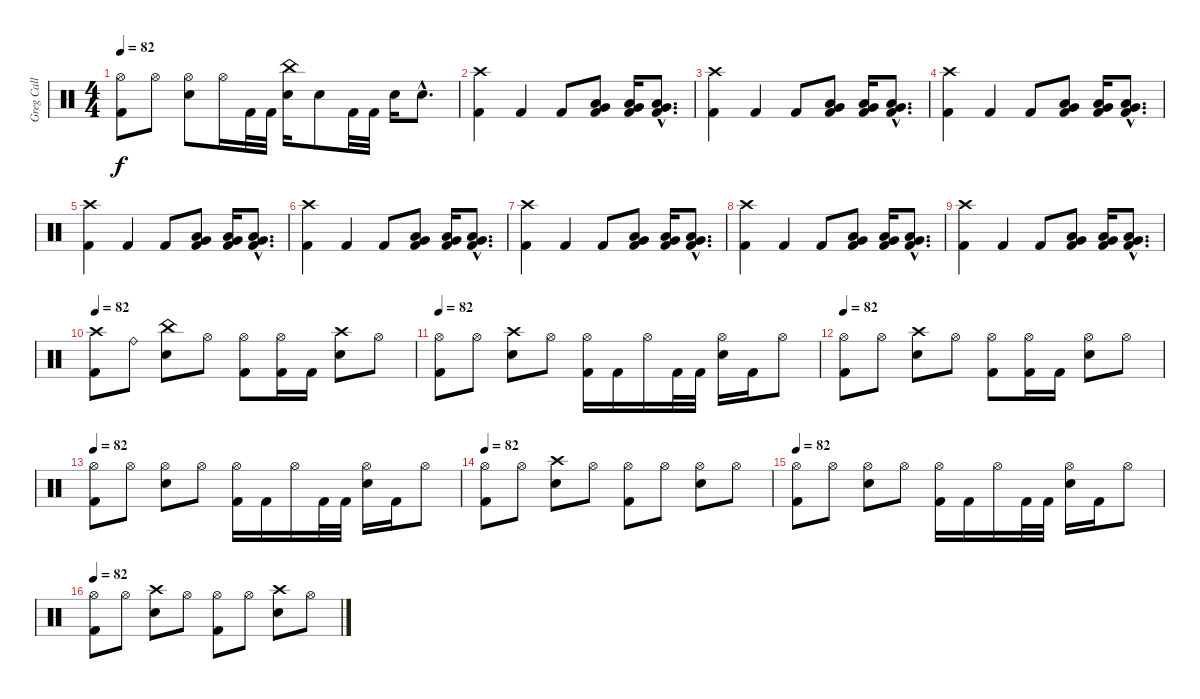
\track ("Greg Call (Drums)" "Greg Call ") {instrument percussion}
\staff {score}
\articulation defaults
\ts (4 4)
\tempo 82
\clef neutral
\ks c
("Hi-Hat (open)" "Kick (hit) 2").8{dy f} "Hi-Hat (open)".8 ("Hi-Hat (open)" "Snare (hit) 2").8 "Hi-Hat (open)".16 "Kick (hit) 2".32 "Kick (hit) 2".32 ("China (hit)" "Snare (hit) 2").16 "Snare (hit) 2".8 "Kick (hit) 2".32 "Kick (hit) 2".32 "Snare (hit) 2".16 "Snare (hit) 2"{hac}.8{d} |
("Kick (hit) 2" "Crash high (hit)").4 "Kick (hit) 2".4 "Kick (hit) 2".8 ("Low Floor Tom (hit)" "Very Low Tom (hit)" "Kick (hit) 2").8 ("Very Low Tom (hit)" "Low Floor Tom (hit)" "Kick (hit) 2").16 ("Low Floor Tom (hit)"{hac} "Very Low Tom (hit)"{hac} "Kick (hit) 2"{hac}).8{d} |
("Kick (hit) 2" "Crash high (hit)").4 "Kick (hit) 2".4 "Kick (hit) 2".8 ("Low Floor Tom (hit)" "Very Low Tom (hit)" "Kick (hit) 2").8 ("Very Low Tom (hit)" "Low Floor Tom (hit)" "Kick (hit) 2").16 ("Low Floor Tom (hit)"{hac} "Very Low Tom (hit)"{hac} "Kick (hit) 2"{hac}).8{d} |
("Kick (hit) 2" "Crash high (hit)").4 "Kick (hit) 2".4 "Kick (hit) 2".8 ("Low Floor Tom (hit)" "Very Low Tom (hit)" "Kick (hit) 2").8 ("Very Low Tom (hit)" "Low Floor Tom (hit)" "Kick (hit) 2").16 ("Low Floor Tom (hit)"{hac} "Very Low Tom (hit)"{hac} "Kick (hit) 2"{hac}).8{d} |
("Kick (hit) 2" "Crash high (hit)").4 "Kick (hit) 2".4 "Kick (hit) 2".8 ("Low Floor Tom (hit)" "Very Low Tom (hit)" "Kick (hit) 2").8 ("Very Low Tom (hit)" "Low Floor Tom (hit)" "Kick (hit) 2").16 ("Low Floor Tom (hit)"{hac} "Very Low Tom (hit)"{hac} "Kick (hit) 2"{hac}).8{d} |
("Kick (hit) 2" "Crash high (hit)").4 "Kick (hit) 2".4 "Kick (hit) 2".8 ("Low Floor Tom (hit)" "Very Low Tom (hit)" "Kick (hit) 2").8 ("Very Low Tom (hit)" "Low Floor Tom (hit)" "Kick (hit) 2").16 ("Low Floor Tom (hit)"{hac} "Very Low Tom (hit)"{hac} "Kick (hit) 2"{hac}).8{d} |
("Kick (hit) 2" "Crash high (hit)").4 "Kick (hit) 2".4 "Kick (hit) 2".8 ("Low Floor Tom (hit)" "Very Low Tom (hit)" "Kick (hit) 2").8 ("Very Low Tom (hit)" "Low Floor Tom (hit)" "Kick (hit) 2").16 ("Low Floor Tom (hit)"{hac} "Very Low Tom (hit)"{hac} "Kick (hit) 2"{hac}).8{d} |
("Kick (hit) 2" "Crash high (hit)").4 "Kick (hit) 2".4 "Kick (hit) 2".8 ("Low Floor Tom (hit)" "Very Low Tom (hit)" "Kick (hit) 2").8 ("Very Low Tom (hit)" "Low Floor Tom (hit)" "Kick (hit) 2").16 ("Low Floor Tom (hit)"{hac} "Very Low Tom (hit)"{hac} "Kick (hit) 2"{hac}).8{d} |
("Kick (hit) 2" "Crash high (hit)").4 "Kick (hit) 2".4 "Kick (hit) 2".8 ("Low Floor Tom (hit)" "Very Low Tom (hit)" "Kick (hit) 2").8 ("Very Low Tom (hit)" "Low Floor Tom (hit)" "Kick (hit) 2").16 ("Low Floor Tom (hit)"{hac} "Very Low Tom (hit)"{hac} "Kick (hit) 2"{hac}).8{d} |
\tempo 82
("Crash high (hit)" "Kick (hit) 2").8 "Ride (bell)".8 ("China (hit)" "Snare (hit) 2").8 "Hi-Hat (open)".8 ("Hi-Hat (open)" "Kick (hit) 2").8 ("Hi-Hat (open)" "Kick (hit) 2").16 "Kick (hit) 2".16 ("Crash high (hit)" "Snare (hit) 2").8 "Hi-Hat (open)".8 |
\tempo 82
("Hi-Hat (open)" "Kick (hit) 2").8 "Hi-Hat (open)".8 ("Crash high (hit)" "Snare (hit) 2").8 "Hi-Hat (open)".8 ("Hi-Hat (open)" "Kick (hit) 2").16 "Kick (hit) 2".16 "Hi-Hat (open)".16 "Kick (hit) 2".32 "Kick (hit) 2".32 ("Hi-Hat (open)" "Snare (hit) 2").16 "Kick (hit) 2".16 "Hi-Hat (open)".8 |
\tempo 82
("Hi-Hat (open)" "Kick (hit) 2").8 "Hi-Hat (open)".8 ("Crash high (hit)" "Snare (hit) 2").8 "Hi-Hat (open)".8 ("Hi-Hat (open)" "Kick (hit) 2").8 ("Hi-Hat (open)" "Kick (hit) 2").16 "Kick (hit) 2".16 ("Hi-Hat (open)" "Snare (hit) 2").8 "Hi-Hat (open)".8 |
\tempo 82
("Hi-Hat (open)" "Kick (hit) 2").8 "Hi-Hat (open)".8 ("Hi-Hat (open)" "Snare (hit) 2").8 "Hi-Hat (open)".8 ("Hi-Hat (open)" "Kick (hit) 2").16 "Kick (hit) 2".16 "Hi-Hat (open)".16 "Kick (hit) 2".32 "Kick (hit) 2".32 ("Hi-Hat (open)" "Snare (hit) 2").16 "Kick (hit) 2".16 "Hi-Hat (open)".8 |
\tempo 82
("Hi-Hat (open)" "Kick (hit) 2").8 "Hi-Hat (open)".8 ("Crash high (hit)" "Snare (hit) 2").8 "Hi-Hat (open)".8 ("Hi-Hat (open)" "Kick (hit) 2").8 "Hi-Hat (open)".8 ("Hi-Hat (open)" "Snare (hit) 2").8 "Hi-Hat (open)".8 |
\tempo 82
("Hi-Hat (open)" "Kick (hit) 2").8 "Hi-Hat (open)".8 ("Hi-Hat (open)" "Snare (hit) 2").8 "Hi-Hat (open)".8 ("Hi-Hat (open)" "Kick (hit) 2").16 "Kick (hit) 2".16 "Hi-Hat (open)".16 "Kick (hit) 2".32 "Kick (hit) 2".32 ("Hi-Hat (open)" "Snare (hit) 2").16 "Kick (hit) 2".16 "Hi-Hat (open)".8 |
\tempo 82
("Hi-Hat (open)" "Kick (hit) 2").8 "Hi-Hat (open)".8 ("Crash high (hit)" "Snare (hit) 2").8 "Hi-Hat (open)".8 ("Hi-Hat (open)" "Kick (hit) 2").8 "Hi-Hat (open)".8 ("Crash high (hit)" "Snare (hit) 2").8 "Hi-Hat (open)".8
